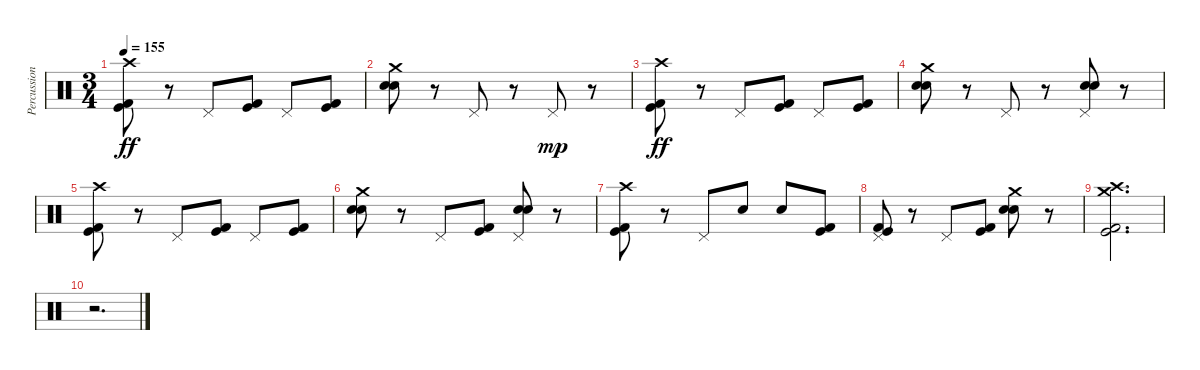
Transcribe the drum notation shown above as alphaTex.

\track ("Percussion" "Percussion") {instrument percussion}
\staff {score}
\articulation defaults
\ts (3 4)
\tempo 155
\clef neutral
\ks c
("Crash high (hit)" "Kick (hit)" "Kick (hit) 2").8{dy ff} r.8 "Pedal Hi-Hat (hit)".8 ("Kick (hit)" "Kick (hit) 2").8 "Pedal Hi-Hat (hit)".8 ("Kick (hit)" "Kick (hit) 2").8 |
("Crash medium (hit)" "Electric Snare (hit)" "Electric Snare (hit)").8 r.8 "Pedal Hi-Hat (hit)".8 r.8 "Pedal Hi-Hat (hit)".8{dy mp} r.8 |
("Crash high (hit)" "Kick (hit)" "Kick (hit) 2").8{dy ff} r.8 "Pedal Hi-Hat (hit)".8 ("Kick (hit)" "Kick (hit) 2").8 "Pedal Hi-Hat (hit)".8 ("Kick (hit)" "Kick (hit) 2").8 |
("Crash medium (hit)" "Electric Snare (hit)" "Electric Snare (hit)").8 r.8 "Pedal Hi-Hat (hit)".8 r.8 ("Pedal Hi-Hat (hit)" "Electric Snare (hit)" "Electric Snare (hit)").8 r.8 |
("Crash high (hit)" "Kick (hit)" "Kick (hit) 2").8 r.8 "Pedal Hi-Hat (hit)".8 ("Kick (hit)" "Kick (hit) 2").8 "Pedal Hi-Hat (hit)".8 ("Kick (hit)" "Kick (hit) 2").8 |
("Crash medium (hit)" "Electric Snare (hit)" "Electric Snare (hit)").8 r.8 "Pedal Hi-Hat (hit)".8 ("Kick (hit)" "Kick (hit) 2").8 ("Pedal Hi-Hat (hit)" "Electric Snare (hit)" "Electric Snare (hit)").8 r.8 |
("Crash high (hit)" "Kick (hit)" "Kick (hit) 2").8 r.8 "Pedal Hi-Hat (hit)".8 "Electric Snare (hit)".8 "Electric Snare (hit)".8 ("Kick (hit)" "Kick (hit) 2").8 |
("Pedal Hi-Hat (hit)" "Kick (hit)" "Kick (hit) 2").8 r.8 "Pedal Hi-Hat (hit)".8 ("Kick (hit)" "Kick (hit) 2").8 ("Crash medium (hit)" "Electric Snare (hit)" "Electric Snare (hit)").8 r.8 |
("Crash high (hit)" "Crash medium (hit)" "Kick (hit)" "Kick (hit) 2").2{d} |
r.2{d}
